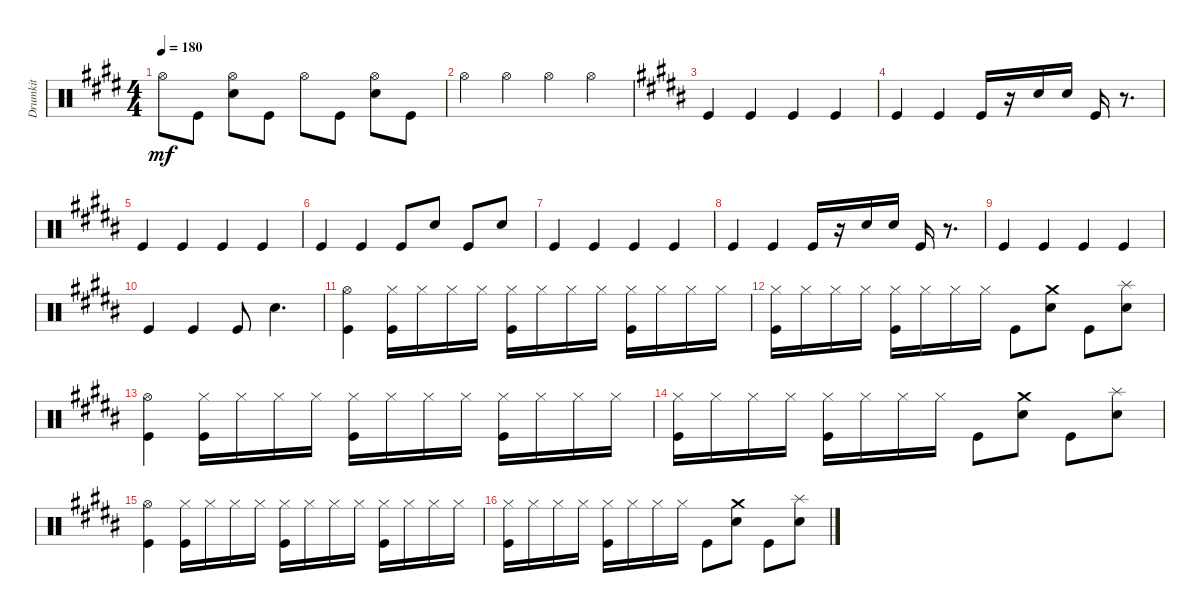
\track ("Drumkit" "Drumkit") {instrument percussion}
\staff {score}
\articulation defaults
\ts (4 4)
\tempo 180
\clef neutral
\ks e "Hi-Hat (open)".8{dy mf} "Kick (hit)".8
("Snare (hit) 2" "Hi-Hat (open)").8 "Kick (hit)".8 "Hi-Hat (open)".8 "Kick (hit)".8 ("Snare (hit) 2" "Hi-Hat (open)").8 "Kick (hit)".8 |
"Hi-Hat (open)".4 "Hi-Hat (open)".4 "Hi-Hat (open)".4 "Hi-Hat (open)".4 |
\ks b "Kick (hit)".4 "Kick (hit)".4 "Kick (hit)".4 "Kick (hit)".4
|
"Kick (hit)".4 "Kick (hit)".4 "Kick (hit)".16 r.16 "Snare (hit) 2".16 "Snare (hit) 2".16 "Kick (hit)".16 r.8{d} |
"Kick (hit)".4 "Kick (hit)".4 "Kick (hit)".4 "Kick (hit)".4 |
"Kick (hit)".4 "Kick (hit)".4 "Kick (hit)".8 "Snare (hit) 2".8 "Kick (hit)".8 "Snare (hit) 2".8 |
"Kick (hit)".4 "Kick (hit)".4 "Kick (hit)".4 "Kick (hit)".4 |
"Kick (hit)".4 "Kick (hit)".4 "Kick (hit)".16 r.16 "Snare (hit) 2".16 "Snare (hit) 2".16 "Kick (hit)".16 r.8{d} |
"Kick (hit)".4 "Kick (hit)".4 "Kick (hit)".4 "Kick (hit)".4 |
"Kick (hit)".4 "Kick (hit)".4 "Kick (hit)".8 "Snare (hit) 2".4{d} |
("Hi-Hat (open)" "Kick (hit)").4 ("Hi-Hat (closed)" "Kick (hit)").16 "Hi-Hat (closed)".16 "Hi-Hat (closed)".16 "Hi-Hat (closed)".16 ("Hi-Hat (closed)" "Kick (hit)").16 "Hi-Hat (closed)".16 "Hi-Hat (closed)".16 "Hi-Hat (closed)".16 ("Hi-Hat (closed)" "Kick (hit)").16 "Hi-Hat (closed)".16 "Hi-Hat (closed)".16 "Hi-Hat (closed)".16 |
("Hi-Hat (closed)" "Kick (hit)").16 "Hi-Hat (closed)".16 "Hi-Hat (closed)".16 "Hi-Hat (closed)".16 ("Hi-Hat (closed)" "Kick (hit)").16 "Hi-Hat (closed)".16 "Hi-Hat (closed)".16 "Hi-Hat (closed)".16 "Kick (hit)".8 ("Snare (hit) 2" "Crash medium (hit)").8 "Kick (hit)".8 ("Snare (hit) 2" "Splash (hit)").8 |
("Hi-Hat (open)" "Kick (hit)").4 ("Hi-Hat (closed)" "Kick (hit)").16 "Hi-Hat (closed)".16 "Hi-Hat (closed)".16 "Hi-Hat (closed)".16 ("Hi-Hat (closed)" "Kick (hit)").16 "Hi-Hat (closed)".16 "Hi-Hat (closed)".16 "Hi-Hat (closed)".16 ("Hi-Hat (closed)" "Kick (hit)").16 "Hi-Hat (closed)".16 "Hi-Hat (closed)".16 "Hi-Hat (closed)".16 |
("Hi-Hat (closed)" "Kick (hit)").16 "Hi-Hat (closed)".16 "Hi-Hat (closed)".16 "Hi-Hat (closed)".16 ("Hi-Hat (closed)" "Kick (hit)").16 "Hi-Hat (closed)".16 "Hi-Hat (closed)".16 "Hi-Hat (closed)".16 "Kick (hit)".8 ("Snare (hit) 2" "Crash medium (hit)").8 "Kick (hit)".8 ("Snare (hit) 2" "Splash (hit)").8 |
("Hi-Hat (open)" "Kick (hit)").4 ("Hi-Hat (closed)" "Kick (hit)").16 "Hi-Hat (closed)".16 "Hi-Hat (closed)".16 "Hi-Hat (closed)".16 ("Hi-Hat (closed)" "Kick (hit)").16 "Hi-Hat (closed)".16 "Hi-Hat (closed)".16 "Hi-Hat (closed)".16 ("Hi-Hat (closed)" "Kick (hit)").16 "Hi-Hat (closed)".16 "Hi-Hat (closed)".16 "Hi-Hat (closed)".16 |
("Hi-Hat (closed)" "Kick (hit)").16 "Hi-Hat (closed)".16 "Hi-Hat (closed)".16 "Hi-Hat (closed)".16 ("Hi-Hat (closed)" "Kick (hit)").16 "Hi-Hat (closed)".16 "Hi-Hat (closed)".16 "Hi-Hat (closed)".16 "Kick (hit)".8 ("Snare (hit) 2" "Crash medium (hit)").8 "Kick (hit)".8 ("Snare (hit) 2" "Splash (hit)").8
